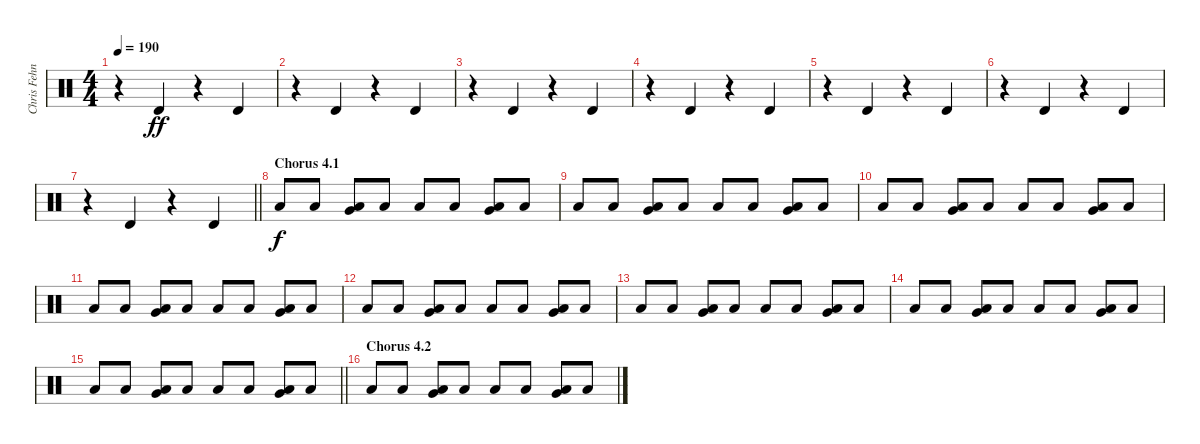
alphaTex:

\track ("Chris Fehn" "Chris Fehn") {instrument percussion}
\staff {score}
\articulation defaults
\ts (4 4)
\tempo 190
\clef neutral
\ks c
r.4{dy ff} "Timbale high (hit)".4 r.4 "Timbale high (hit)".4 |
r.4 "Timbale high (hit)".4 r.4 "Timbale high (hit)".4 |
r.4 "Timbale high (hit)".4 r.4 "Timbale high (hit)".4 |
r.4 "Timbale high (hit)".4 r.4 "Timbale high (hit)".4 |
r.4 "Timbale high (hit)".4 r.4 "Timbale high (hit)".4 |
r.4 "Timbale high (hit)".4 r.4 "Timbale high (hit)".4 |
\barLineRight lightlight
r.4 "Timbale high (hit)".4 r.4 "Timbale high (hit)".4 |
\section ("" "Chorus 4.1")
"Low Floor Tom (hit)".8{dy f} "Low Floor Tom (hit)".8 ("Very Low Tom (hit)" "Low Floor Tom (hit)").8 "Low Floor Tom (hit)".8 "Low Floor Tom (hit)".8 "Low Floor Tom (hit)".8 ("Very Low Tom (hit)" "Low Floor Tom (hit)").8 "Low Floor Tom (hit)".8 |
"Low Floor Tom (hit)".8 "Low Floor Tom (hit)".8 ("Very Low Tom (hit)" "Low Floor Tom (hit)").8 "Low Floor Tom (hit)".8 "Low Floor Tom (hit)".8 "Low Floor Tom (hit)".8 ("Very Low Tom (hit)" "Low Floor Tom (hit)").8 "Low Floor Tom (hit)".8 |
"Low Floor Tom (hit)".8 "Low Floor Tom (hit)".8 ("Very Low Tom (hit)" "Low Floor Tom (hit)").8 "Low Floor Tom (hit)".8 "Low Floor Tom (hit)".8 "Low Floor Tom (hit)".8 ("Very Low Tom (hit)" "Low Floor Tom (hit)").8 "Low Floor Tom (hit)".8 |
"Low Floor Tom (hit)".8 "Low Floor Tom (hit)".8 ("Very Low Tom (hit)" "Low Floor Tom (hit)").8 "Low Floor Tom (hit)".8 "Low Floor Tom (hit)".8 "Low Floor Tom (hit)".8 ("Very Low Tom (hit)" "Low Floor Tom (hit)").8 "Low Floor Tom (hit)".8 |
"Low Floor Tom (hit)".8 "Low Floor Tom (hit)".8 ("Very Low Tom (hit)" "Low Floor Tom (hit)").8 "Low Floor Tom (hit)".8 "Low Floor Tom (hit)".8 "Low Floor Tom (hit)".8 ("Very Low Tom (hit)" "Low Floor Tom (hit)").8 "Low Floor Tom (hit)".8 |
"Low Floor Tom (hit)".8 "Low Floor Tom (hit)".8 ("Very Low Tom (hit)" "Low Floor Tom (hit)").8 "Low Floor Tom (hit)".8 "Low Floor Tom (hit)".8 "Low Floor Tom (hit)".8 ("Very Low Tom (hit)" "Low Floor Tom (hit)").8 "Low Floor Tom (hit)".8 |
"Low Floor Tom (hit)".8 "Low Floor Tom (hit)".8 ("Very Low Tom (hit)" "Low Floor Tom (hit)").8 "Low Floor Tom (hit)".8 "Low Floor Tom (hit)".8 "Low Floor Tom (hit)".8 ("Very Low Tom (hit)" "Low Floor Tom (hit)").8 "Low Floor Tom (hit)".8 |
\barLineRight lightlight "Low Floor Tom (hit)".8 "Low Floor Tom (hit)".8
("Very Low Tom (hit)" "Low Floor Tom (hit)").8 "Low Floor Tom (hit)".8 "Low Floor Tom (hit)".8 "Low Floor Tom (hit)".8 ("Very Low Tom (hit)" "Low Floor Tom (hit)").8 "Low Floor Tom (hit)".8 |
\section ("" "Chorus 4.2")
"Low Floor Tom (hit)".8 "Low Floor Tom (hit)".8 ("Very Low Tom (hit)" "Low Floor Tom (hit)").8 "Low Floor Tom (hit)".8 "Low Floor Tom (hit)".8 "Low Floor Tom (hit)".8 ("Very Low Tom (hit)" "Low Floor Tom (hit)").8 "Low Floor Tom (hit)".8
